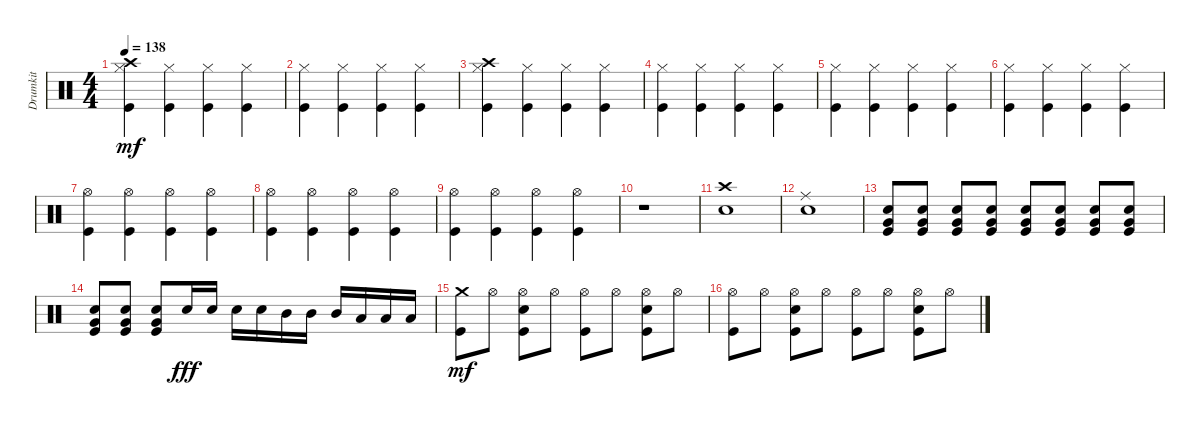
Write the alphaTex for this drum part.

\track ("Drumkit" "Drumkit") {instrument percussion}
\staff {score}
\articulation defaults
\ts (4 4)
\tempo 138
\clef neutral
\ks c
("Kick (hit)" "Hi-Hat (closed)" "Crash high (hit)").4{dy mf} ("Kick (hit)" "Hi-Hat (closed)").4 ("Kick (hit)" "Hi-Hat (closed)").4 ("Kick (hit)" "Hi-Hat (closed)").4 |
("Kick (hit)" "Hi-Hat (closed)").4 ("Kick (hit)" "Hi-Hat (closed)").4 ("Kick (hit)" "Hi-Hat (closed)").4 ("Kick (hit)" "Hi-Hat (closed)").4 |
("Kick (hit)" "Hi-Hat (closed)" "Crash high (hit)").4 ("Kick (hit)" "Hi-Hat (closed)").4 ("Kick (hit)" "Hi-Hat (closed)").4 ("Kick (hit)" "Hi-Hat (closed)").4 |
("Kick (hit)" "Hi-Hat (closed)").4 ("Kick (hit)" "Hi-Hat (closed)").4 ("Kick (hit)" "Hi-Hat (closed)").4 ("Kick (hit)" "Hi-Hat (closed)").4 |
("Kick (hit)" "Hi-Hat (closed)").4 ("Kick (hit)" "Hi-Hat (closed)").4 ("Kick (hit)" "Hi-Hat (closed)").4 ("Kick (hit)" "Hi-Hat (closed)").4 |
("Kick (hit)" "Hi-Hat (closed)").4 ("Kick (hit)" "Hi-Hat (closed)").4 ("Kick (hit)" "Hi-Hat (closed)").4 ("Kick (hit)" "Hi-Hat (closed)").4 |
("Kick (hit)" "Hi-Hat (open)").4 ("Kick (hit)" "Hi-Hat (open)").4 ("Kick (hit)" "Hi-Hat (open)").4 ("Kick (hit)" "Hi-Hat (open)").4 |
("Kick (hit)" "Hi-Hat (open)").4 ("Kick (hit)" "Hi-Hat (open)").4 ("Kick (hit)" "Hi-Hat (open)").4 ("Kick (hit)" "Hi-Hat (open)").4 |
("Kick (hit)" "Hi-Hat (open)").4 ("Kick (hit)" "Hi-Hat (open)").4 ("Kick (hit)" "Hi-Hat (open)").4 ("Kick (hit)" "Hi-Hat (open)").4 |
r.1 |
("Crash high (hit)" "Snare (hit) 2").1 |
("Ride (middle)" "Snare (hit) 2").1 |
("Kick (hit)" "Snare (hit) 2" "Very Low Tom (hit)").8 ("Kick (hit)" "Very Low Tom (hit)" "Snare (hit) 2").8 ("Kick (hit)" "Very Low Tom (hit)" "Snare (hit) 2").8 ("Kick (hit)" "Very Low Tom (hit)" "Snare (hit) 2").8 ("Kick (hit)" "Very Low Tom (hit)" "Snare (hit) 2").8 ("Kick (hit)" "Very Low Tom (hit)" "Snare (hit) 2").8 ("Kick (hit)" "Very Low Tom (hit)" "Snare (hit) 2").8 ("Kick (hit)" "Very Low Tom (hit)" "Snare (hit) 2").8 |
("Kick (hit)" "Snare (hit) 2" "Very Low Tom (hit)").8 ("Kick (hit)" "Snare (hit) 2" "Very Low Tom (hit)").8 ("Kick (hit)" "Snare (hit) 2" "Very Low Tom (hit)").8 "Snare (hit) 2".16{dy fff} "Snare (hit) 2".16 "Snare (hit) 2".16 "Snare (hit) 2".16 "Mid Tom (hit)".16 "Mid Tom (hit)".16 "Mid Tom (hit)".16 "Low Tom (hit)".16 "Low Tom (hit)".16 "Low Tom (hit)".16 |
("Kick (hit)" "Crash medium (hit)").8{dy mf} "Hi-Hat (open)".8 ("Snare (hit) 2" "Hi-Hat (open)" "Kick (hit)").8 "Hi-Hat (open)".8 ("Kick (hit)" "Hi-Hat (open)").8 "Hi-Hat (open)".8 ("Snare (hit) 2" "Hi-Hat (open)" "Kick (hit)").8 "Hi-Hat (open)".8 |
("Kick (hit)" "Hi-Hat (open)").8 "Hi-Hat (open)".8 ("Snare (hit) 2" "Hi-Hat (open)" "Kick (hit)").8 "Hi-Hat (open)".8 ("Kick (hit)" "Hi-Hat (open)").8 "Hi-Hat (open)".8 ("Snare (hit) 2" "Hi-Hat (open)" "Kick (hit)").8 "Hi-Hat (open)".8
